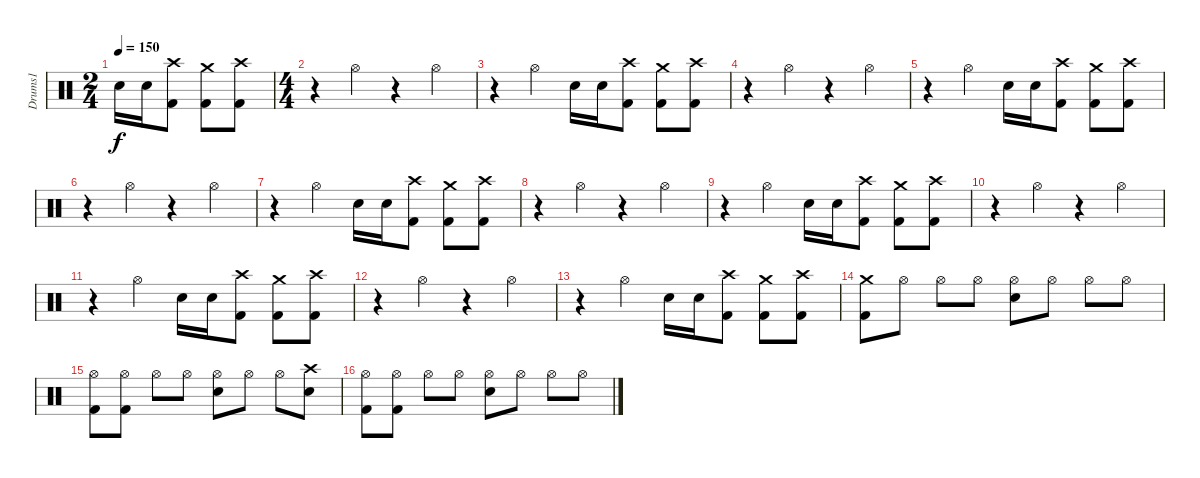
\track ("Drums1" "Drums1") {instrument percussion}
\staff {score}
\articulation defaults
\ts (2 4)
\tempo 150
\clef neutral
\ks c "Electric Snare (hit)".16{dy f} "Electric Snare (hit)".16
("Crash high (hit)" "Kick (hit) 2").8 ("Crash medium (hit)" "Kick (hit) 2").8 ("Crash high (hit)" "Kick (hit) 2").8 |
\ts (4 4)
r.4 "Hi-Hat (open)".4 r.4 "Hi-Hat (open)".4 |
r.4 "Hi-Hat (open)".4 "Electric Snare (hit)".16 "Electric Snare (hit)".16 ("Crash high (hit)" "Kick (hit) 2").8 ("Crash medium (hit)" "Kick (hit) 2").8 ("Crash high (hit)" "Kick (hit) 2").8 |
r.4 "Hi-Hat (open)".4 r.4 "Hi-Hat (open)".4 |
r.4 "Hi-Hat (open)".4 "Electric Snare (hit)".16 "Electric Snare (hit)".16 ("Crash high (hit)" "Kick (hit) 2").8 ("Crash medium (hit)" "Kick (hit) 2").8 ("Crash high (hit)" "Kick (hit) 2").8 |
r.4 "Hi-Hat (open)".4 r.4 "Hi-Hat (open)".4 |
r.4 "Hi-Hat (open)".4 "Electric Snare (hit)".16 "Electric Snare (hit)".16 ("Crash high (hit)" "Kick (hit) 2").8 ("Crash medium (hit)" "Kick (hit) 2").8 ("Crash high (hit)" "Kick (hit) 2").8 |
r.4 "Hi-Hat (open)".4 r.4 "Hi-Hat (open)".4 |
r.4 "Hi-Hat (open)".4 "Electric Snare (hit)".16 "Electric Snare (hit)".16 ("Crash high (hit)" "Kick (hit) 2").8 ("Crash medium (hit)" "Kick (hit) 2").8 ("Crash high (hit)" "Kick (hit) 2").8 |
r.4 "Hi-Hat (open)".4 r.4 "Hi-Hat (open)".4 |
r.4 "Hi-Hat (open)".4 "Electric Snare (hit)".16 "Electric Snare (hit)".16 ("Crash high (hit)" "Kick (hit) 2").8 ("Crash medium (hit)" "Kick (hit) 2").8 ("Crash high (hit)" "Kick (hit) 2").8 |
r.4 "Hi-Hat (open)".4 r.4 "Hi-Hat (open)".4 |
r.4 "Hi-Hat (open)".4 "Electric Snare (hit)".16 "Electric Snare (hit)".16 ("Crash high (hit)" "Kick (hit) 2").8 ("Crash medium (hit)" "Kick (hit) 2").8 ("Crash high (hit)" "Kick (hit) 2").8 |
("Crash medium (hit)" "Kick (hit) 2").8 "Hi-Hat (open)".8 "Hi-Hat (open)".8 "Hi-Hat (open)".8 ("Hi-Hat (open)" "Electric Snare (hit)").8 "Hi-Hat (open)".8 "Hi-Hat (open)".8 "Hi-Hat (open)".8 |
("Hi-Hat (open)" "Kick (hit) 2").8 ("Hi-Hat (open)" "Kick (hit) 2").8 "Hi-Hat (open)".8 "Hi-Hat (open)".8 ("Hi-Hat (open)" "Electric Snare (hit)").8 "Hi-Hat (open)".8 "Hi-Hat (open)".8 ("Crash high (hit)" "Electric Snare (hit)").8 |
("Hi-Hat (open)" "Kick (hit) 2").8 ("Hi-Hat (open)" "Kick (hit) 2").8 "Hi-Hat (open)".8 "Hi-Hat (open)".8 ("Hi-Hat (open)" "Electric Snare (hit)").8 "Hi-Hat (open)".8 "Hi-Hat (open)".8 "Hi-Hat (open)".8
